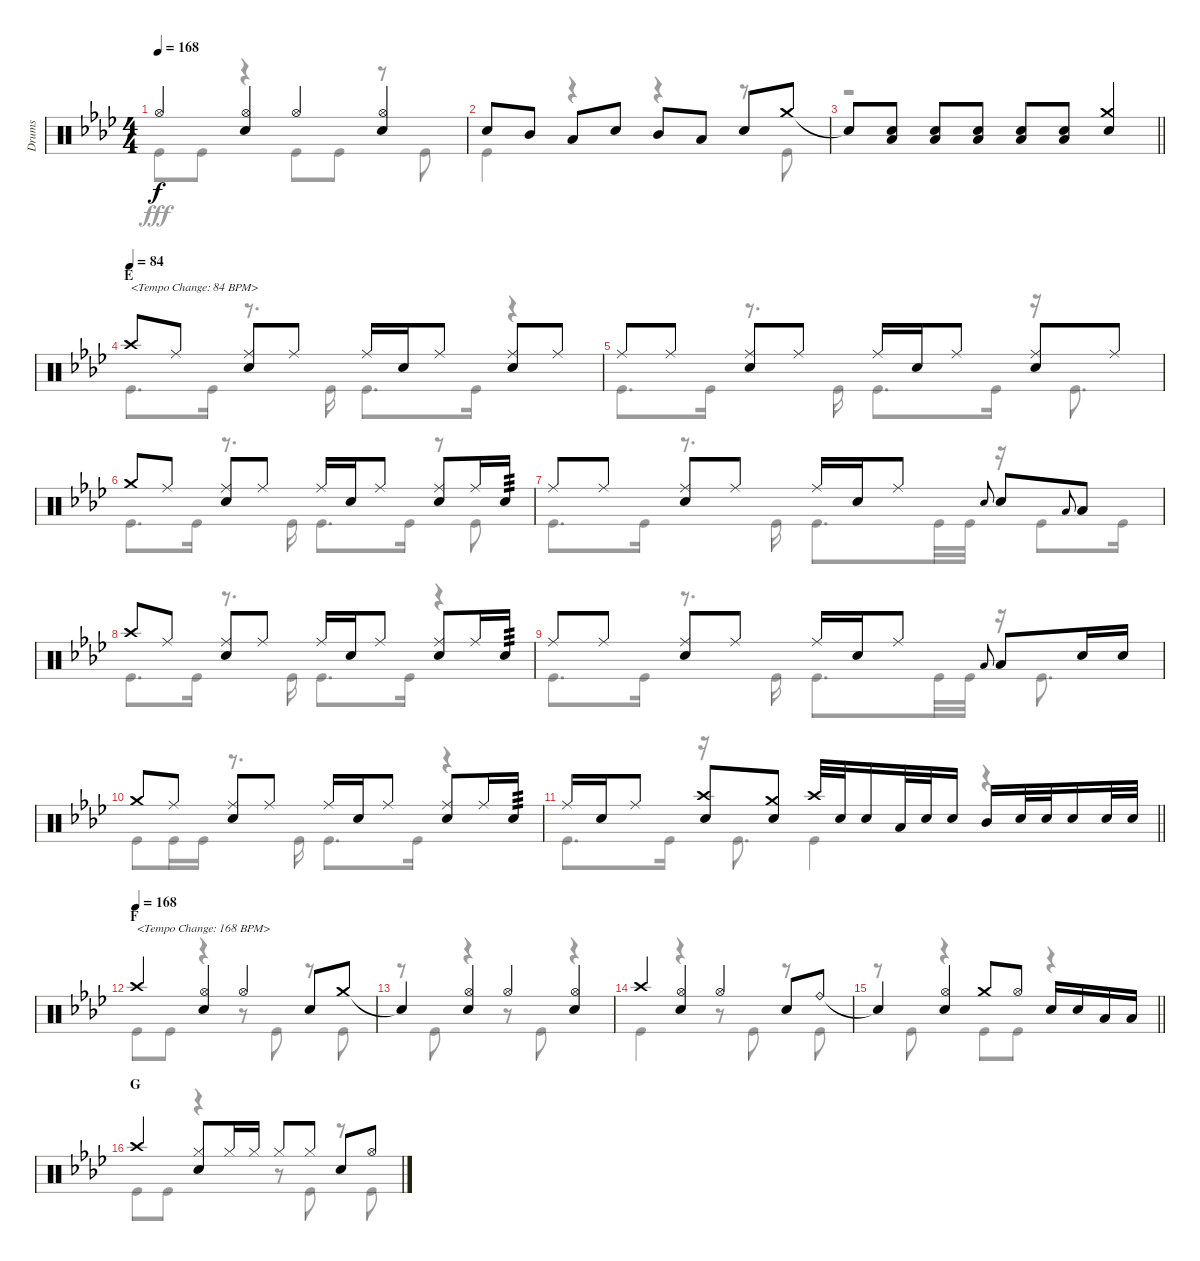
\track ("Drums" "Drums") {instrument percussion}
\staff {score}
\articulation defaults
\voice
\ts (4 4)
\tempo 168
\clef neutral
\ks ab "Hi-Hat (open)".4{dy f}
("Hi-Hat (open)" "Snare (hit) 2").4 "Hi-Hat (open)".4 ("Hi-Hat (open)" "Snare (hit) 2").4 |
"Snare (hit) 2".8 "Mid Tom (hit)".8 "Low Tom (hit)".8 "Snare (hit) 2".8 "Mid Tom (hit)".8 "Low Tom (hit)".8 "Snare (hit) 2".8 "Crash medium (hit)".8 |
\barLineRight lightlight "Snare (hit)"{t}.8
("Snare (hit) 2" "Low Tom (hit)").8 ("Snare (hit) 2" "Low Tom (hit)").8 ("Snare (hit) 2" "Low Tom (hit)").8 ("Snare (hit) 2" "Low Tom (hit)").8 ("Snare (hit) 2" "Low Tom (hit)").8 ("Crash medium (hit)" "Snare (hit) 2").4 |
\section ("" "E")
\tempo (84)
"Crash high (hit)".8{txt "<Tempo Change: 84 BPM>"} "Ride (middle)".8 ("Ride (middle)" "Snare (hit) 2").8 "Ride (middle)".8 "Ride (middle)".16 "Snare (hit) 2".16 "Ride (middle)".8 ("Ride (middle)" "Snare (hit) 2").8 "Ride (middle)".8 |
"Ride (middle)".8 "Ride (middle)".8 ("Ride (middle)" "Snare (hit) 2").8 "Ride (middle)".8 "Ride (middle)".16 "Snare (hit) 2".16 "Ride (middle)".8 ("Ride (middle)" "Snare (hit) 2").8 "Ride (middle)".8 |
"Crash medium (hit)".8 "Ride (middle)".8 ("Ride (middle)" "Snare (hit) 2").8 "Ride (middle)".8 "Ride (middle)".16 "Snare (hit) 2".16 "Ride (middle)".8 ("Ride (middle)" "Snare (hit) 2").8 "Ride (middle)".16 "Snare (hit) 2".16{tp 3} |
"Ride (middle)".8 "Ride (middle)".8 ("Ride (middle)" "Snare (hit) 2").8 "Ride (middle)".8 "Ride (middle)".16 "Snare (hit) 2".16 "Ride (middle)".8 "Snare (hit) 2".8{gr onbeat} "Snare (hit) 2".8 "Low Tom (hit)".8{gr onbeat} "Low Tom (hit)".8 |
"Crash high (hit)".8 "Ride (middle)".8 ("Ride (middle)" "Snare (hit) 2").8 "Ride (middle)".8 "Ride (middle)".16 "Snare (hit) 2".16 "Ride (middle)".8 ("Ride (middle)" "Snare (hit) 2").8 "Ride (middle)".16 "Snare (hit) 2".16{tp 3} |
"Ride (middle)".8 "Ride (middle)".8 ("Ride (middle)" "Snare (hit) 2").8 "Ride (middle)".8 "Ride (middle)".16 "Snare (hit) 2".16 "Ride (middle)".8 "Low Tom (hit)".8{gr onbeat} "Low Tom (hit)".8 "Snare (hit) 2".16 "Snare (hit) 2".16 |
"Crash medium (hit)".8 "Ride (middle)".8 ("Ride (middle)" "Snare (hit) 2").8 "Ride (middle)".8 "Ride (middle)".16 "Snare (hit) 2".16 "Ride (middle)".8 ("Ride (middle)" "Snare (hit) 2").8 "Ride (middle)".16 "Snare (hit) 2".16{tp 3} |
\barLineRight lightlight "Ride (middle)".16 "Snare (hit) 2".16 "Ride (middle)".8
("Crash high (hit)" "Snare (hit) 2").8 ("Crash medium (hit)" "Snare (hit) 2").8 "Crash high (hit)".32 "Snare (hit) 2".32 "Snare (hit) 2".16 "Low Tom (hit)".32 "Snare (hit) 2".32 "Snare (hit) 2".16 "Mid Tom (hit)".16 "Snare (hit) 2".32 "Snare (hit) 2".32 "Snare (hit) 2".16 "Snare (hit) 2".32 "Snare (hit) 2".32 |
\section ("" "F")
\tempo (168)
"Crash high (hit)".4{txt "<Tempo Change: 168 BPM>"} ("Hi-Hat (open)" "Snare (hit) 2").4 "Hi-Hat (open)".4 "Snare (hit) 2".8 "Crash medium (hit)".8 |
"Snare (hit)"{t}.4 ("Hi-Hat (open)" "Snare (hit) 2").4 "Hi-Hat (open)".4 ("Hi-Hat (open)" "Snare (hit) 2").4 |
"Crash high (hit)".4 ("Hi-Hat (open)" "Snare (hit) 2").4 "Hi-Hat (open)".4 "Snare (hit) 2".8 "Ride (bell)".8 |
\barLineRight lightlight "Snare (hit)"{t}.4
("Hi-Hat (open)" "Snare (hit) 2").4 "Crash medium (hit)".8 "Hi-Hat (open)".8 "Snare (hit) 2".16 "Snare (hit) 2".16 "Low Tom (hit)".16 "Low Tom (hit)".16 |
\section ("" "G")
"Crash high (hit)".4 ("Hi-Hat (closed)" "Snare (hit) 2").8 "Hi-Hat (closed)".16 "Hi-Hat (closed)".16 "Hi-Hat (closed)".8 "Hi-Hat (closed)".8 "Snare (hit) 2".8 "Hi-Hat (open)".8
\voice
\clef neutral
\ottava regular
\simile none
\ks ab "Kick (hit)".8{dy fff} "Kick (hit)".8
r.4 "Kick (hit)".8 "Kick (hit)".8 r.8 "Kick (hit)".8 |
"Kick (hit)".4 r.4 r.4 r.8 "Kick (hit)".8 |
\barLineRight lightlight
r.1 |
"Kick (hit)".8{d} "Kick (hit)".16 r.8{d} "Kick (hit)".16 "Kick (hit)".8{d} "Kick (hit)".16 r.4 |
"Kick (hit)".8{d} "Kick (hit)".16 r.8{d} "Kick (hit)".16 "Kick (hit)".8{d} "Kick (hit)".16 r.16 "Kick (hit)".8{d} |
"Kick (hit)".8{d} "Kick (hit)".16 r.8{d} "Kick (hit)".16 "Kick (hit)".8{d} "Kick (hit)".16 r.8 "Kick (hit)".8 |
"Kick (hit)".8{d} "Kick (hit)".16 r.8{d} "Kick (hit)".16 "Kick (hit)".8{d} "Kick (hit)".32 "Kick (hit)".32 r.16 "Kick (hit)".8 "Kick (hit)".16 |
"Kick (hit)".8{d} "Kick (hit)".16 r.8{d} "Kick (hit)".16 "Kick (hit)".8{d} "Kick (hit)".16 r.4 |
"Kick (hit)".8{d} "Kick (hit)".16 r.8{d} "Kick (hit)".16 "Kick (hit)".8{d} "Kick (hit)".32 "Kick (hit)".32 r.16 "Kick (hit)".8{d} |
"Kick (hit)".8 "Kick (hit)".16 "Kick (hit)".16 r.8{d} "Kick (hit)".16 "Kick (hit)".8{d} "Kick (hit)".16 r.4 |
\barLineRight lightlight "Kick (hit)".8{d} "Kick (hit)".16
r.16 "Kick (hit)".8{d} "Kick (hit)".4 r.4 |
"Kick (hit)".8 "Kick (hit)".8 r.4 r.8 "Kick (hit)".8 r.8 "Kick (hit)".8 |
r.8 "Kick (hit)".8 r.4 r.8 "Kick (hit)".8 r.4 |
"Kick (hit)".4 r.4 r.8 "Kick (hit)".8 r.8 "Kick (hit)".8 |
\barLineRight lightlight
r.8 "Kick (hit)".8 r.4 "Kick (hit)".8 "Kick (hit)".8 r.4 |
"Kick (hit)".8 "Kick (hit)".8 r.4 r.8 "Kick (hit)".8 r.8 "Kick (hit)".8
